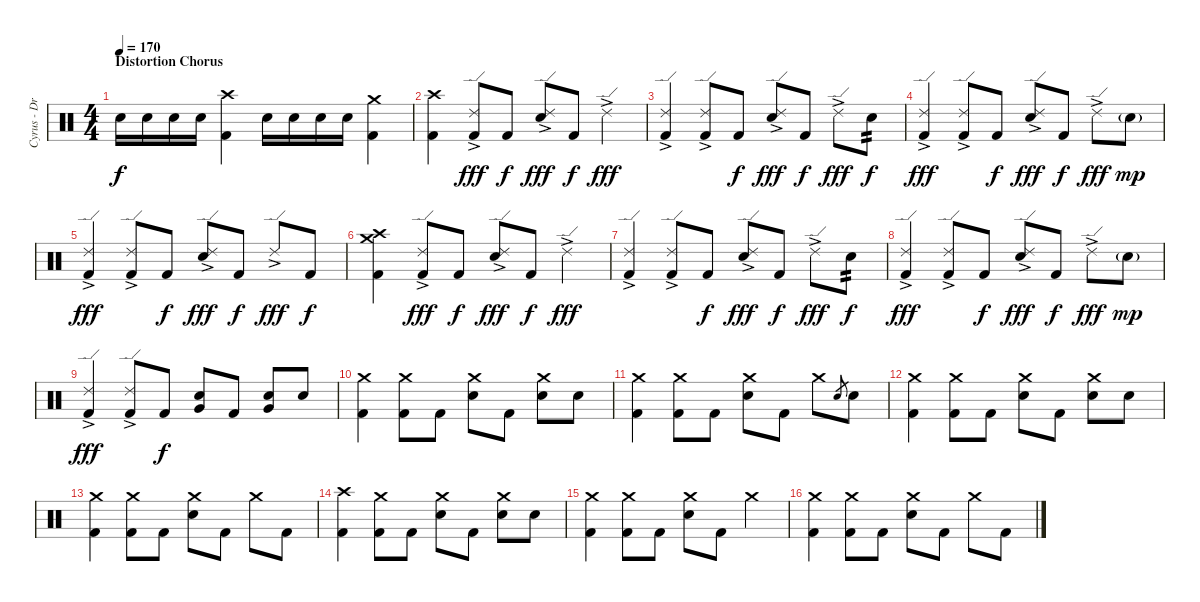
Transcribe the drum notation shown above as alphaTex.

\track ("Cyrus - Drums" "Cyrus - Dr") {instrument percussion}
\staff {score}
\articulation defaults
\ts (4 4)
\section ("" "Distortion Chorus")
\tempo 170
\clef neutral
\ks c "Electric Snare (hit)".16{dy f} "Electric Snare (hit)".16 "Electric Snare (hit)".16 "Electric Snare (hit)".16
("Crash high (hit)" "Kick (hit) 2").4 "Electric Snare (hit)".16 "Electric Snare (hit)".16 "Electric Snare (hit)".16 "Electric Snare (hit)".16 ("Crash medium (hit)" "Kick (hit) 2").4 |
("Crash high (hit)" "Kick (hit) 2").4 ("Ride (edge) 2"{ac} "Kick (hit) 2").8{dy fff} "Kick (hit) 2".8{dy f} ("Ride (edge) 2"{ac} "Electric Snare (hit)").8{dy fff} "Kick (hit) 2".8{dy f} "Ride (edge) 2"{ac}.4{dy fff} |
("Ride (edge) 2"{ac} "Kick (hit) 2").4 ("Ride (edge) 2"{ac} "Kick (hit) 2").8 "Kick (hit) 2".8{dy f} ("Ride (edge) 2"{ac} "Electric Snare (hit)").8{dy fff} "Kick (hit) 2".8{dy f} "Ride (edge) 2"{ac}.8{dy fff} "Electric Snare (hit)".8{tp 2 dy f} |
("Ride (edge) 2"{ac} "Kick (hit) 2").4{dy fff} ("Ride (edge) 2"{ac} "Kick (hit) 2").8 "Kick (hit) 2".8{dy f} ("Ride (edge) 2"{ac} "Electric Snare (hit)").8{dy fff} "Kick (hit) 2".8{dy f} "Ride (edge) 2"{ac}.8{dy fff} "Electric Snare (hit)"{g}.8{dy mp} |
("Ride (edge) 2"{ac} "Kick (hit) 2").4{dy fff} ("Ride (edge) 2"{ac} "Kick (hit) 2").8 "Kick (hit) 2".8{dy f} ("Ride (edge) 2"{ac} "Electric Snare (hit)").8{dy fff} "Kick (hit) 2".8{dy f} "Ride (edge) 2"{ac}.8{dy fff} "Kick (hit) 2".8{dy f} |
("Crash high (hit)" "Crash medium (hit)" "Kick (hit) 2").4 ("Ride (edge) 2"{ac} "Kick (hit) 2").8{dy fff} "Kick (hit) 2".8{dy f} ("Ride (edge) 2"{ac} "Electric Snare (hit)").8{dy fff} "Kick (hit) 2".8{dy f} "Ride (edge) 2"{ac}.4{dy fff} |
("Ride (edge) 2"{ac} "Kick (hit) 2").4 ("Ride (edge) 2"{ac} "Kick (hit) 2").8 "Kick (hit) 2".8{dy f} ("Ride (edge) 2"{ac} "Electric Snare (hit)").8{dy fff} "Kick (hit) 2".8{dy f} "Ride (edge) 2"{ac}.8{dy fff} "Electric Snare (hit)".8{tp 2 dy f} |
("Ride (edge) 2"{ac} "Kick (hit) 2").4{dy fff} ("Ride (edge) 2"{ac} "Kick (hit) 2").8 "Kick (hit) 2".8{dy f} ("Ride (edge) 2"{ac} "Electric Snare (hit)").8{dy fff} "Kick (hit) 2".8{dy f} "Ride (edge) 2"{ac}.8{dy fff} "Electric Snare (hit)"{g}.8{dy mp} |
("Ride (edge) 2"{ac} "Kick (hit) 2").4{dy fff} ("Ride (edge) 2"{ac} "Kick (hit) 2").8 "Kick (hit) 2".8{dy f} ("Very Low Tom (hit)" "Electric Snare (hit)").8 "Kick (hit) 2".8 ("Very Low Tom (hit)" "Electric Snare (hit)").8 "Electric Snare (hit)".8 |
("Crash medium (hit)" "Kick (hit) 2").4 ("Crash medium (hit)" "Kick (hit) 2").8 "Kick (hit) 2".8 ("Crash medium (hit)" "Electric Snare (hit)").8 "Kick (hit) 2".8 ("Crash medium (hit)" "Electric Snare (hit)").8 "Electric Snare (hit)".8 |
("Crash medium (hit)" "Kick (hit) 2").4 ("Crash medium (hit)" "Kick (hit) 2").8 "Kick (hit) 2".8 ("Crash medium (hit)" "Electric Snare (hit)").8 "Kick (hit) 2".8 "Crash medium (hit)".8 "Electric Snare (hit)".8{gr} "Electric Snare (hit)".8 |
("Crash medium (hit)" "Kick (hit) 2").4 ("Crash medium (hit)" "Kick (hit) 2").8 "Kick (hit) 2".8 ("Crash medium (hit)" "Electric Snare (hit)").8 "Kick (hit) 2".8 ("Crash medium (hit)" "Electric Snare (hit)").8 "Electric Snare (hit)".8 |
("Crash medium (hit)" "Kick (hit) 2").4 ("Crash medium (hit)" "Kick (hit) 2").8 "Kick (hit) 2".8 ("Crash medium (hit)" "Electric Snare (hit)").8 "Kick (hit) 2".8 "Crash medium (hit)".8 "Kick (hit) 2".8 |
("Crash high (hit)" "Kick (hit) 2").4 ("Crash medium (hit)" "Kick (hit) 2").8 "Kick (hit) 2".8 ("Crash medium (hit)" "Electric Snare (hit)").8 "Kick (hit) 2".8 ("Crash medium (hit)" "Electric Snare (hit)").8 "Electric Snare (hit)".8 |
("Crash medium (hit)" "Kick (hit) 2").4 ("Crash medium (hit)" "Kick (hit) 2").8 "Kick (hit) 2".8 ("Crash medium (hit)" "Electric Snare (hit)").8 "Kick (hit) 2".8 "Crash medium (hit)".4 |
("Crash medium (hit)" "Kick (hit) 2").4 ("Crash medium (hit)" "Kick (hit) 2").8 "Kick (hit) 2".8 ("Crash medium (hit)" "Electric Snare (hit)").8 "Kick (hit) 2".8 "Crash medium (hit)".8 "Kick (hit) 2".8
